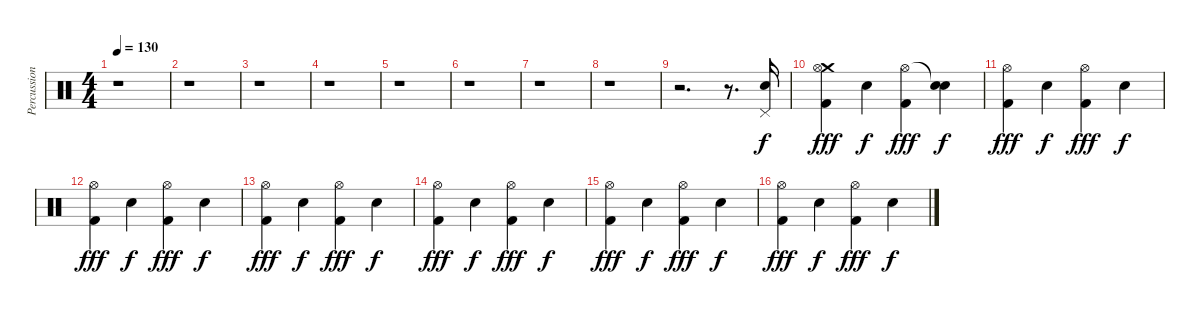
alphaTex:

\track ("Percussions" "Percussion") {instrument percussion}
\staff {score}
\articulation defaults
\ts (4 4)
\tempo 130
\clef neutral
\ks c
r.1{dy f} |
r.1 |
r.1 |
r.1 |
r.1 |
r.1 |
r.1 |
r.1 |
r.2{d} r.8{d} ("Pedal Hi-Hat (hit)" "Electric Snare (hit)").16 |
("Crash medium (hit)" "Hi-Hat (open)" "Kick (hit) 2").4{dy fff} "Electric Snare (hit)".4{dy f} ("Hi-Hat (open)" "Kick (hit) 2").4{dy fff} ("Snare (hit)"{t} "Electric Snare (hit)").4{dy f} |
("Hi-Hat (open)" "Kick (hit) 2").4{dy fff} "Electric Snare (hit)".4{dy f} ("Hi-Hat (open)" "Kick (hit) 2").4{dy fff} "Electric Snare (hit)".4{dy f} |
("Hi-Hat (open)" "Kick (hit) 2").4{dy fff} "Electric Snare (hit)".4{dy f} ("Hi-Hat (open)" "Kick (hit) 2").4{dy fff} "Electric Snare (hit)".4{dy f} |
("Hi-Hat (open)" "Kick (hit) 2").4{dy fff} "Electric Snare (hit)".4{dy f} ("Hi-Hat (open)" "Kick (hit) 2").4{dy fff} "Electric Snare (hit)".4{dy f} |
("Hi-Hat (open)" "Kick (hit) 2").4{dy fff} "Electric Snare (hit)".4{dy f} ("Hi-Hat (open)" "Kick (hit) 2").4{dy fff} "Electric Snare (hit)".4{dy f} |
("Hi-Hat (open)" "Kick (hit) 2").4{dy fff} "Electric Snare (hit)".4{dy f} ("Hi-Hat (open)" "Kick (hit) 2").4{dy fff} "Electric Snare (hit)".4{dy f} |
("Hi-Hat (open)" "Kick (hit) 2").4{dy fff} "Electric Snare (hit)".4{dy f} ("Hi-Hat (open)" "Kick (hit) 2").4{dy fff} "Electric Snare (hit)".4{dy f}
